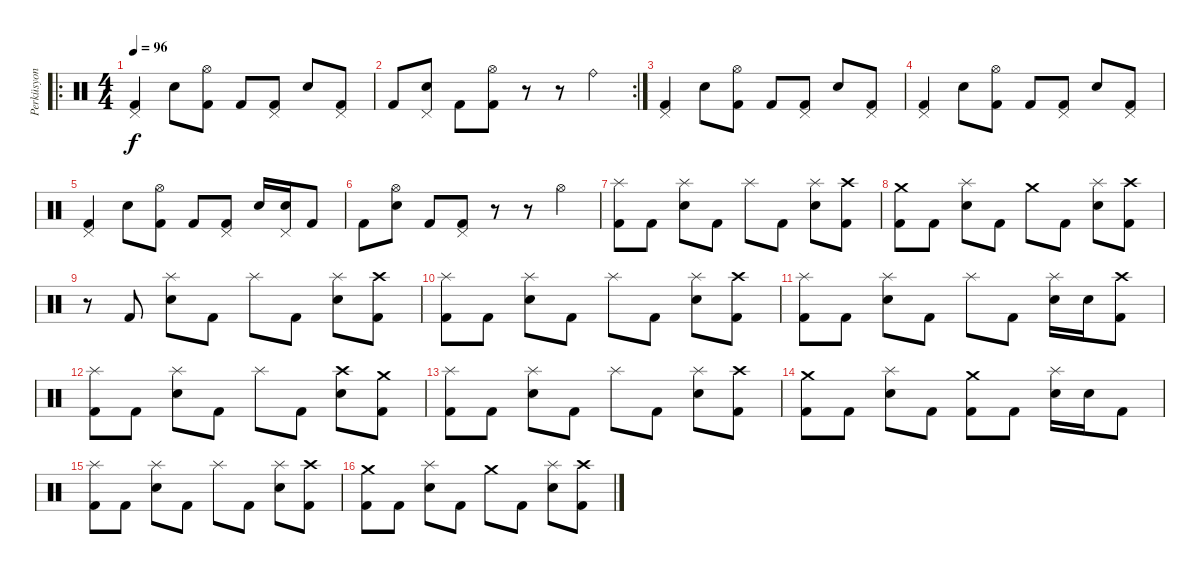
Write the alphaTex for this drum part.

\track ("Perküsyon" "Perküsyon") {instrument percussion}
\staff {score}
\articulation defaults
\ro
\ts (4 4)
\tempo 96
\clef neutral
\ks c
("Kick (hit) 2" "Pedal Hi-Hat (hit)").4{dy f} "Snare (hit) 2".8 ("Kick (hit) 2" "Hi-Hat (open)").8 "Kick (hit) 2".8 ("Kick (hit) 2" "Pedal Hi-Hat (hit)").8 "Snare (hit) 2".8 ("Kick (hit) 2" "Pedal Hi-Hat (hit)").8 |
\rc 2 "Kick (hit) 2".8
("Snare (hit) 2" "Pedal Hi-Hat (hit)").8 "Kick (hit) 2".8 ("Kick (hit) 2" "Hi-Hat (open)").8 r.8 r.8 "Ride (bell)".4 |
("Kick (hit) 2" "Pedal Hi-Hat (hit)").4 "Snare (hit) 2".8 ("Kick (hit) 2" "Hi-Hat (open)").8 "Kick (hit) 2".8 ("Kick (hit) 2" "Pedal Hi-Hat (hit)").8 "Snare (hit) 2".8 ("Kick (hit) 2" "Pedal Hi-Hat (hit)").8 |
("Kick (hit) 2" "Pedal Hi-Hat (hit)").4 "Snare (hit) 2".8 ("Kick (hit) 2" "Hi-Hat (open)").8 "Kick (hit) 2".8 ("Kick (hit) 2" "Pedal Hi-Hat (hit)").8 "Snare (hit) 2".8 ("Kick (hit) 2" "Pedal Hi-Hat (hit)").8 |
("Kick (hit) 2" "Pedal Hi-Hat (hit)").4 "Snare (hit) 2".8 ("Kick (hit) 2" "Hi-Hat (open)").8 "Kick (hit) 2".8 ("Kick (hit) 2" "Pedal Hi-Hat (hit)").8 "Snare (hit) 2".16 ("Snare (hit) 2" "Pedal Hi-Hat (hit)").16 "Kick (hit) 2".8 |
"Kick (hit) 2".8 ("Snare (hit) 2" "Hi-Hat (open)").8 "Kick (hit) 2".8 ("Kick (hit) 2" "Pedal Hi-Hat (hit)").8 r.8 r.8 "Hi-Hat (open)".4 |
("Kick (hit) 2" "Splash (hit)").8 "Kick (hit) 2".8 ("Snare (hit) 2" "Splash (hit)").8 "Kick (hit) 2".8 "Splash (hit)".8 "Kick (hit) 2".8 ("Snare (hit) 2" "Splash (hit)").8 ("Kick (hit) 2" "Crash high (hit)").8 |
("Kick (hit) 2" "Crash medium (hit)").8 "Kick (hit) 2".8 ("Snare (hit) 2" "Splash (hit)").8 "Kick (hit) 2".8 "Crash medium (hit)".8 "Kick (hit) 2".8 ("Snare (hit) 2" "Splash (hit)").8 ("Kick (hit) 2" "Crash high (hit)").8 |
r.8 "Kick (hit) 2".8 ("Snare (hit) 2" "Splash (hit)").8 "Kick (hit) 2".8 "Splash (hit)".8 "Kick (hit) 2".8 ("Snare (hit) 2" "Splash (hit)").8 ("Kick (hit) 2" "Crash high (hit)").8 |
("Kick (hit) 2" "Splash (hit)").8 "Kick (hit) 2".8 ("Snare (hit) 2" "Splash (hit)").8 "Kick (hit) 2".8 "Splash (hit)".8 "Kick (hit) 2".8 ("Snare (hit) 2" "Splash (hit)").8 ("Kick (hit) 2" "Crash high (hit)").8 |
("Kick (hit) 2" "Splash (hit)").8 "Kick (hit) 2".8 ("Snare (hit) 2" "Splash (hit)").8 "Kick (hit) 2".8 "Splash (hit)".8 "Kick (hit) 2".8 ("Snare (hit) 2" "Splash (hit)").16 "Snare (hit) 2".16 ("Kick (hit) 2" "Crash high (hit)").8 |
("Kick (hit) 2" "Splash (hit)").8 "Kick (hit) 2".8 ("Snare (hit) 2" "Splash (hit)").8 "Kick (hit) 2".8 "Splash (hit)".8 "Kick (hit) 2".8 ("Snare (hit) 2" "Crash high (hit)").8 ("Kick (hit) 2" "Crash medium (hit)").8 |
("Kick (hit) 2" "Splash (hit)").8 "Kick (hit) 2".8 ("Snare (hit) 2" "Splash (hit)").8 "Kick (hit) 2".8 "Splash (hit)".8 "Kick (hit) 2".8 ("Snare (hit) 2" "Splash (hit)").8 ("Kick (hit) 2" "Crash high (hit)").8 |
("Kick (hit) 2" "Crash medium (hit)").8 "Kick (hit) 2".8 ("Snare (hit) 2" "Splash (hit)").8 "Kick (hit) 2".8 ("Kick (hit) 2" "Crash medium (hit)").8 "Kick (hit) 2".8 ("Snare (hit) 2" "Splash (hit)").16 "Snare (hit) 2".16 "Kick (hit) 2".8 |
("Kick (hit) 2" "Splash (hit)").8 "Kick (hit) 2".8 ("Snare (hit) 2" "Splash (hit)").8 "Kick (hit) 2".8 "Splash (hit)".8 "Kick (hit) 2".8 ("Snare (hit) 2" "Splash (hit)").8 ("Kick (hit) 2" "Crash high (hit)").8 |
("Kick (hit) 2" "Crash medium (hit)").8 "Kick (hit) 2".8 ("Snare (hit) 2" "Splash (hit)").8 "Kick (hit) 2".8 "Crash medium (hit)".8 "Kick (hit) 2".8 ("Snare (hit) 2" "Splash (hit)").8 ("Kick (hit) 2" "Crash high (hit)").8
